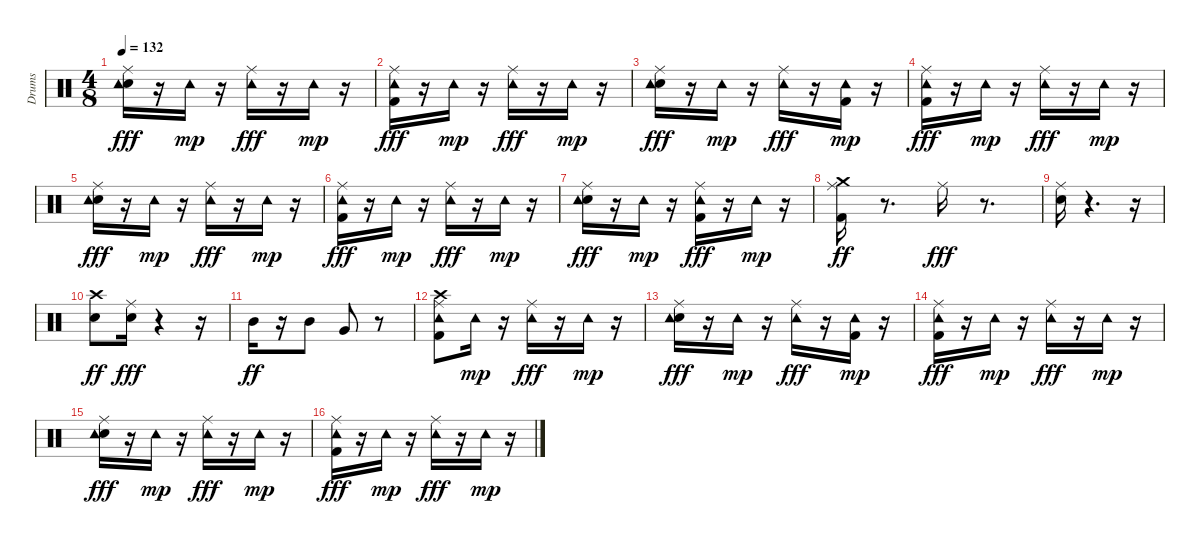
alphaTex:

\track ("Drums" "Drums") {instrument percussion}
\staff {score}
\articulation defaults
\ts (4 8)
\tempo 132
\clef neutral
\ks c
("Snare (hit) 2" "Ride (middle)" "Tambourine (hit)").16{dy fff} r.16 "Tambourine (hit)".16{dy mp} r.16 ("Ride (middle)" "Tambourine (hit)").16{dy fff} r.16 "Tambourine (hit)".16{dy mp} r.16 |
("Kick (hit) 2" "Ride (middle)" "Tambourine (hit)").16{dy fff} r.16 "Tambourine (hit)".16{dy mp} r.16 ("Ride (middle)" "Tambourine (hit)").16{dy fff} r.16 "Tambourine (hit)".16{dy mp} r.16 |
("Snare (hit) 2" "Ride (middle)" "Tambourine (hit)").16{dy fff} r.16 "Tambourine (hit)".16{dy mp} r.16 ("Ride (middle)" "Tambourine (hit)").16{dy fff} r.16 ("Kick (hit) 2" "Tambourine (hit)").16{dy mp} r.16 |
("Kick (hit) 2" "Ride (middle)" "Tambourine (hit)").16{dy fff} r.16 "Tambourine (hit)".16{dy mp} r.16 ("Ride (middle)" "Tambourine (hit)").16{dy fff} r.16 "Tambourine (hit)".16{dy mp} r.16 |
("Snare (hit) 2" "Ride (middle)" "Tambourine (hit)").16{dy fff} r.16 "Tambourine (hit)".16{dy mp} r.16 ("Ride (middle)" "Tambourine (hit)").16{dy fff} r.16 "Tambourine (hit)".16{dy mp} r.16 |
("Kick (hit) 2" "Ride (middle)" "Tambourine (hit)").16{dy fff} r.16 "Tambourine (hit)".16{dy mp} r.16 ("Ride (middle)" "Tambourine (hit)").16{dy fff} r.16 "Tambourine (hit)".16{dy mp} r.16 |
("Snare (hit) 2" "Ride (middle)" "Tambourine (hit)").16{dy fff} r.16 "Tambourine (hit)".16{dy mp} r.16 ("Kick (hit) 2" "Ride (middle)" "Tambourine (hit)").16{dy fff} r.16 "Tambourine (hit)".16{dy mp} r.16 |
("Kick (hit) 2" "Ride (middle)" "Crash medium (hit)").16{dy ff} r.8{d} "Ride (middle)".16{dy fff} r.8{d} |
("Snare (hit) 2" "Ride (middle)").16 r.4{d} r.16 |
("Snare (hit) 2" "Crash high (hit)").8{dy ff} ("Snare (hit) 2" "Ride (middle)").16{dy fff} r.4 r.16 |
"Mid Tom (hit)".16{dy ff} r.16 "Mid Tom (hit)".8 "Very Low Tom (hit)".8 r.8 |
("Kick (hit) 2" "Ride (middle)" "Tambourine (hit)" "Crash high (hit)").8 "Tambourine (hit)".16{dy mp} r.16 ("Ride (middle)" "Tambourine (hit)").16{dy fff} r.16 "Tambourine (hit)".16{dy mp} r.16 |
("Snare (hit) 2" "Ride (middle)" "Tambourine (hit)").16{dy fff} r.16 "Tambourine (hit)".16{dy mp} r.16 ("Ride (middle)" "Tambourine (hit)").16{dy fff} r.16 ("Kick (hit) 2" "Tambourine (hit)").16{dy mp} r.16 |
("Kick (hit) 2" "Ride (middle)" "Tambourine (hit)").16{dy fff} r.16 "Tambourine (hit)".16{dy mp} r.16 ("Ride (middle)" "Tambourine (hit)").16{dy fff} r.16 "Tambourine (hit)".16{dy mp} r.16 |
("Snare (hit) 2" "Ride (middle)" "Tambourine (hit)").16{dy fff} r.16 "Tambourine (hit)".16{dy mp} r.16 ("Ride (middle)" "Tambourine (hit)").16{dy fff} r.16 "Tambourine (hit)".16{dy mp} r.16 |
("Kick (hit) 2" "Ride (middle)" "Tambourine (hit)").16{dy fff} r.16 "Tambourine (hit)".16{dy mp} r.16 ("Ride (middle)" "Tambourine (hit)").16{dy fff} r.16 "Tambourine (hit)".16{dy mp} r.16
